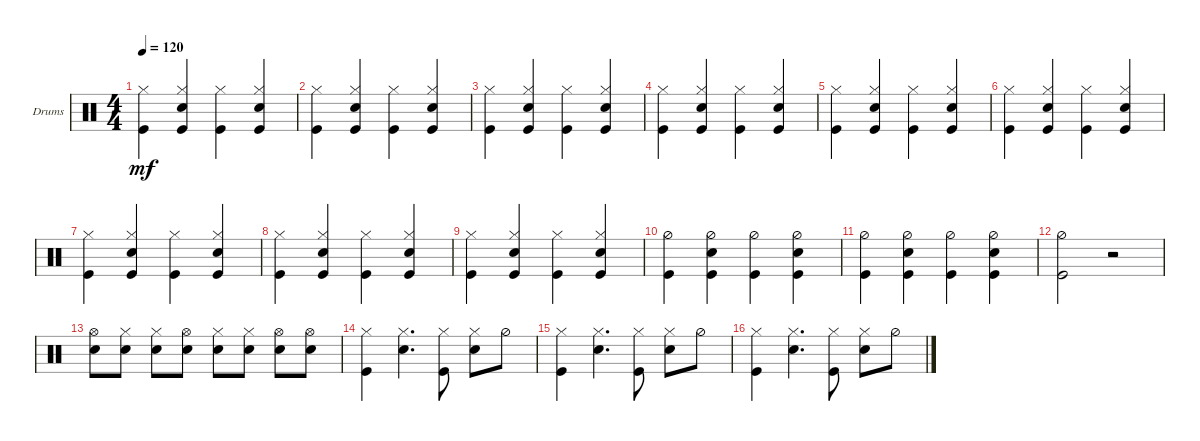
\defaultSystemsLayout 4
\bracketExtendMode groupsimilarinstruments
\firstSystemTrackNameOrientation horizontal
\otherSystemsTrackNameOrientation horizontal
\track ("Drumkit" "Drums") {instrument percussion}
\staff {score}
\articulation defaults
\ts (4 4)
\tempo 120
\clef neutral
\ks c
("Kick (hit)" "Hi-Hat (closed)").4{dy mf} ("Kick (hit)" "Hi-Hat (closed)" "Snare (hit) 2").4 ("Kick (hit)" "Hi-Hat (closed)").4 ("Kick (hit)" "Hi-Hat (closed)" "Snare (hit) 2").4 |
("Kick (hit)" "Hi-Hat (closed)").4 ("Kick (hit)" "Snare (hit) 2" "Hi-Hat (closed)").4 ("Kick (hit)" "Hi-Hat (closed)").4 ("Kick (hit)" "Snare (hit) 2" "Hi-Hat (closed)").4 |
("Kick (hit)" "Hi-Hat (closed)").4 ("Kick (hit)" "Hi-Hat (closed)" "Snare (hit) 2").4 ("Kick (hit)" "Hi-Hat (closed)").4 ("Kick (hit)" "Hi-Hat (closed)" "Snare (hit) 2").4 |
("Kick (hit)" "Hi-Hat (closed)").4 ("Kick (hit)" "Snare (hit) 2" "Hi-Hat (closed)").4 ("Kick (hit)" "Hi-Hat (closed)").4 ("Kick (hit)" "Snare (hit) 2" "Hi-Hat (closed)").4 |
("Kick (hit)" "Hi-Hat (closed)").4 ("Kick (hit)" "Hi-Hat (closed)" "Snare (hit) 2").4 ("Kick (hit)" "Hi-Hat (closed)").4 ("Kick (hit)" "Hi-Hat (closed)" "Snare (hit) 2").4 |
("Kick (hit)" "Hi-Hat (closed)").4 ("Kick (hit)" "Snare (hit) 2" "Hi-Hat (closed)").4 ("Kick (hit)" "Hi-Hat (closed)").4 ("Kick (hit)" "Snare (hit) 2" "Hi-Hat (closed)").4 |
("Kick (hit)" "Hi-Hat (closed)").4 ("Kick (hit)" "Hi-Hat (closed)" "Snare (hit) 2").4 ("Kick (hit)" "Hi-Hat (closed)").4 ("Kick (hit)" "Hi-Hat (closed)" "Snare (hit) 2").4 |
("Kick (hit)" "Hi-Hat (closed)").4 ("Kick (hit)" "Snare (hit) 2" "Hi-Hat (closed)").4 ("Kick (hit)" "Hi-Hat (closed)").4 ("Kick (hit)" "Snare (hit) 2" "Hi-Hat (closed)").4 |
("Kick (hit)" "Hi-Hat (closed)").4 ("Kick (hit)" "Hi-Hat (closed)" "Snare (hit) 2").4 ("Kick (hit)" "Hi-Hat (closed)").4 ("Kick (hit)" "Hi-Hat (closed)" "Snare (hit) 2").4 |
("Kick (hit)" "Hi-Hat (half)").4 ("Kick (hit)" "Hi-Hat (half)" "Snare (hit) 2").4 ("Kick (hit)" "Hi-Hat (half)").4 ("Kick (hit)" "Hi-Hat (half)" "Snare (hit) 2").4 |
("Kick (hit)" "Hi-Hat (half)").4 ("Kick (hit)" "Snare (hit) 2" "Hi-Hat (half)").4 ("Kick (hit)" "Hi-Hat (half)").4 ("Kick (hit)" "Snare (hit) 2" "Hi-Hat (half)").4 |
("Kick (hit)" "Hi-Hat (half)").2 r.2 |
("Snare (hit) 2" "Hi-Hat (open)").8 ("Snare (hit) 2" "Hi-Hat (closed)").8 ("Snare (hit) 2" "Hi-Hat (closed)").8 ("Snare (hit) 2" "Hi-Hat (open)").8 ("Snare (hit) 2" "Hi-Hat (closed)").8 ("Snare (hit) 2" "Hi-Hat (closed)").8 ("Snare (hit) 2" "Hi-Hat (open)").8 ("Snare (hit) 2" "Hi-Hat (open)").8 |
("Kick (hit)" "Hi-Hat (closed)").4 ("Snare (hit) 2" "Hi-Hat (closed)").4{d} ("Kick (hit)" "Hi-Hat (closed)").8 ("Snare (hit) 2" "Hi-Hat (closed)").8 "Hi-Hat (half)".8 |
("Kick (hit)" "Hi-Hat (closed)").4 ("Snare (hit) 2" "Hi-Hat (closed)").4{d} ("Kick (hit)" "Hi-Hat (closed)").8 ("Snare (hit) 2" "Hi-Hat (closed)").8 "Hi-Hat (half)".8 |
("Kick (hit)" "Hi-Hat (closed)").4 ("Snare (hit) 2" "Hi-Hat (closed)").4{d} ("Kick (hit)" "Hi-Hat (closed)").8 ("Snare (hit) 2" "Hi-Hat (closed)").8 "Hi-Hat (half)".8
